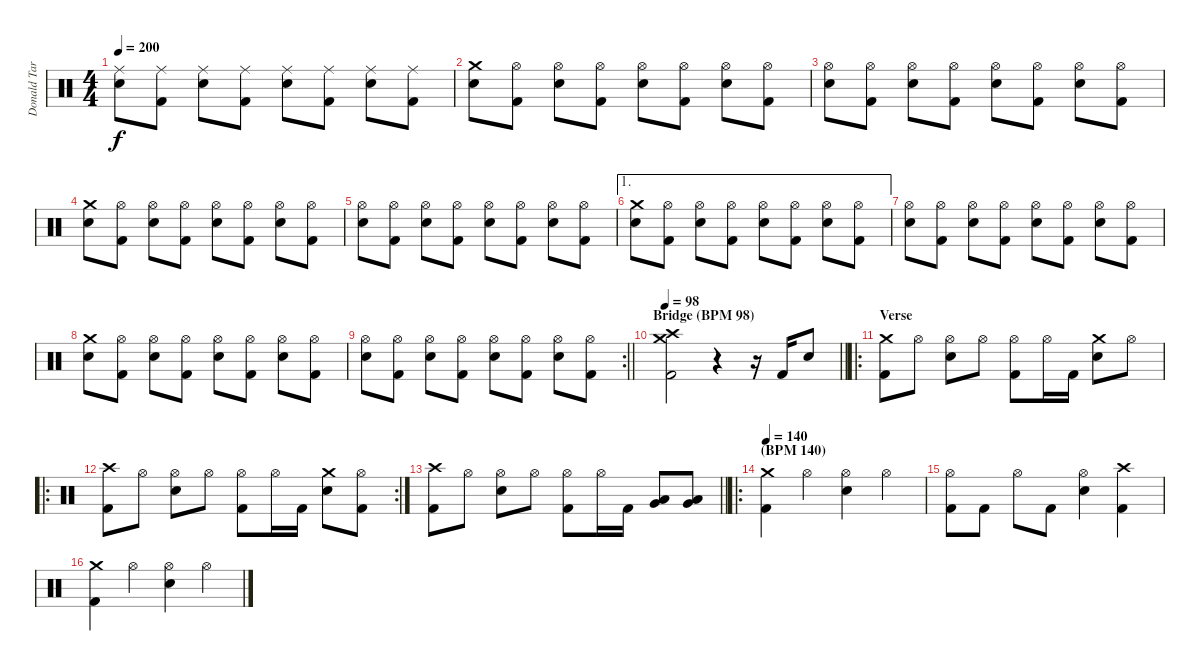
\track ("Donald Tardy" "Donald Tar") {instrument percussion}
\staff {score}
\articulation defaults
\ts (4 4)
\tempo 200
\clef neutral
\ks c
("Ride (middle)" "Snare (hit) 2").8{dy f} ("Ride (middle)" "Kick (hit) 2").8 ("Ride (middle)" "Snare (hit) 2").8 ("Ride (middle)" "Kick (hit) 2").8 ("Ride (middle)" "Snare (hit) 2").8 ("Ride (middle)" "Kick (hit) 2").8 ("Ride (middle)" "Snare (hit) 2").8 ("Ride (middle)" "Kick (hit) 2").8 |
("Crash medium (hit)" "Snare (hit) 2").8 ("Hi-Hat (open)" "Kick (hit) 2").8 ("Hi-Hat (open)" "Snare (hit) 2").8 ("Hi-Hat (open)" "Kick (hit) 2").8 ("Hi-Hat (open)" "Snare (hit) 2").8 ("Hi-Hat (open)" "Kick (hit) 2").8 ("Hi-Hat (open)" "Snare (hit) 2").8 ("Hi-Hat (open)" "Kick (hit) 2").8 |
("Hi-Hat (open)" "Snare (hit) 2").8 ("Hi-Hat (open)" "Kick (hit) 2").8 ("Hi-Hat (open)" "Snare (hit) 2").8 ("Hi-Hat (open)" "Kick (hit) 2").8 ("Hi-Hat (open)" "Snare (hit) 2").8 ("Hi-Hat (open)" "Kick (hit) 2").8 ("Hi-Hat (open)" "Snare (hit) 2").8 ("Hi-Hat (open)" "Kick (hit) 2").8 |
("Crash medium (hit)" "Snare (hit) 2").8 ("Hi-Hat (open)" "Kick (hit) 2").8 ("Hi-Hat (open)" "Snare (hit) 2").8 ("Hi-Hat (open)" "Kick (hit) 2").8 ("Hi-Hat (open)" "Snare (hit) 2").8 ("Hi-Hat (open)" "Kick (hit) 2").8 ("Hi-Hat (open)" "Snare (hit) 2").8 ("Hi-Hat (open)" "Kick (hit) 2").8 |
("Hi-Hat (open)" "Snare (hit) 2").8 ("Hi-Hat (open)" "Kick (hit) 2").8 ("Hi-Hat (open)" "Snare (hit) 2").8 ("Hi-Hat (open)" "Kick (hit) 2").8 ("Hi-Hat (open)" "Snare (hit) 2").8 ("Hi-Hat (open)" "Kick (hit) 2").8 ("Hi-Hat (open)" "Snare (hit) 2").8 ("Hi-Hat (open)" "Kick (hit) 2").8 |
\ae 1
("Crash medium (hit)" "Snare (hit) 2").8 ("Hi-Hat (open)" "Kick (hit) 2").8 ("Hi-Hat (open)" "Snare (hit) 2").8 ("Hi-Hat (open)" "Kick (hit) 2").8 ("Hi-Hat (open)" "Snare (hit) 2").8 ("Hi-Hat (open)" "Kick (hit) 2").8 ("Hi-Hat (open)" "Snare (hit) 2").8 ("Hi-Hat (open)" "Kick (hit) 2").8 |
("Hi-Hat (open)" "Snare (hit) 2").8 ("Hi-Hat (open)" "Kick (hit) 2").8 ("Hi-Hat (open)" "Snare (hit) 2").8 ("Hi-Hat (open)" "Kick (hit) 2").8 ("Hi-Hat (open)" "Snare (hit) 2").8 ("Hi-Hat (open)" "Kick (hit) 2").8 ("Hi-Hat (open)" "Snare (hit) 2").8 ("Hi-Hat (open)" "Kick (hit) 2").8 |
("Crash medium (hit)" "Snare (hit) 2").8 ("Hi-Hat (open)" "Kick (hit) 2").8 ("Hi-Hat (open)" "Snare (hit) 2").8 ("Hi-Hat (open)" "Kick (hit) 2").8 ("Hi-Hat (open)" "Snare (hit) 2").8 ("Hi-Hat (open)" "Kick (hit) 2").8 ("Hi-Hat (open)" "Snare (hit) 2").8 ("Hi-Hat (open)" "Kick (hit) 2").8 |
\rc 2
\barLineRight lightlight
("Hi-Hat (open)" "Snare (hit) 2").8 ("Hi-Hat (open)" "Kick (hit) 2").8 ("Hi-Hat (open)" "Snare (hit) 2").8 ("Hi-Hat (open)" "Kick (hit) 2").8 ("Hi-Hat (open)" "Snare (hit) 2").8 ("Hi-Hat (open)" "Kick (hit) 2").8 ("Hi-Hat (open)" "Snare (hit) 2").8 ("Hi-Hat (open)" "Kick (hit) 2").8 |
\section ("" "Bridge (BPM 98)")
\tempo 98
\barLineRight lightlight
("Crash medium (hit)" "Crash high (hit)" "Kick (hit) 2").2 r.4 r.16 "Kick (hit) 2".16 "Snare (hit) 2".8 |
\ro
\section ("" "Verse")
("Crash medium (hit)" "Kick (hit) 2").8 "Hi-Hat (open)".8 ("Hi-Hat (open)" "Snare (hit) 2").8 "Hi-Hat (open)".8 ("Hi-Hat (open)" "Kick (hit) 2").8 "Hi-Hat (open)".16 "Kick (hit) 2".16 ("Crash medium (hit)" "Snare (hit) 2").8 "Hi-Hat (open)".8 |
\ro
\rc 2
("Crash high (hit)" "Kick (hit) 2").8 "Hi-Hat (open)".8 ("Hi-Hat (open)" "Snare (hit) 2").8 "Hi-Hat (open)".8 ("Hi-Hat (open)" "Kick (hit) 2").8 "Hi-Hat (open)".16 "Kick (hit) 2".16 ("Crash medium (hit)" "Snare (hit) 2").8 ("Hi-Hat (open)" "Kick (hit) 2").8 |
\barLineRight lightlight
("Crash high (hit)" "Kick (hit) 2").8 "Hi-Hat (open)".8 ("Hi-Hat (open)" "Snare (hit) 2").8 "Hi-Hat (open)".8 ("Hi-Hat (open)" "Kick (hit) 2").8 "Hi-Hat (open)".16 "Kick (hit) 2".16 ("Low Tom (hit)" "Very Low Tom (hit)").8 ("Very Low Tom (hit)" "Low Floor Tom (hit)").8 |
\ro
\section ("" "(BPM 140)")
\tempo 140
("Crash medium (hit)" "Kick (hit) 2").4 "Hi-Hat (open)".4 ("Hi-Hat (open)" "Snare (hit) 2").4 "Hi-Hat (open)".4 |
("Hi-Hat (open)" "Kick (hit) 2").8 "Kick (hit) 2".8 "Hi-Hat (open)".8 "Kick (hit) 2".8 ("Hi-Hat (open)" "Snare (hit) 2").4 ("Crash high (hit)" "Kick (hit) 2").4 |
("Crash medium (hit)" "Kick (hit) 2").4 "Hi-Hat (open)".4 ("Hi-Hat (open)" "Snare (hit) 2").4 "Hi-Hat (open)".4
